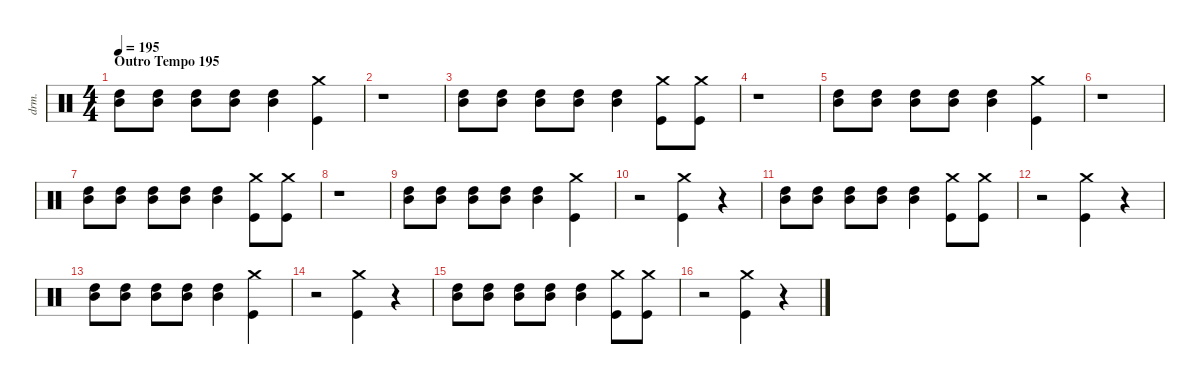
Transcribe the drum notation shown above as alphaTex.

\defaultSystemsLayout 4
\hideDynamics
\bracketExtendMode nobrackets
\otherSystemsTrackNameOrientation horizontal
\track ("Lars Ulrich (Drums)" "drm.") {instrument percussion}
\staff {score}
\articulation defaults
\ts (4 4)
\section ("" "Outro Tempo 195")
\tempo 195
\clef neutral
\ks c
("High Tom (hit)" "Mid Tom (hit)").8{dy f beam Down} ("High Tom (hit)" "Mid Tom (hit)").8{beam Down} ("High Tom (hit)" "Mid Tom (hit)").8{beam Down} ("High Tom (hit)" "Mid Tom (hit)").8{beam Down} ("High Tom (hit)" "Mid Tom (hit)").4{beam Down} ("Crash medium (hit)" "Kick (hit)").4{beam Down} |
r.1{beam Down} |
("High Tom (hit)" "Mid Tom (hit)").8{beam Down} ("High Tom (hit)" "Mid Tom (hit)").8{beam Down} ("High Tom (hit)" "Mid Tom (hit)").8{beam Down} ("High Tom (hit)" "Mid Tom (hit)").8{beam Down} ("High Tom (hit)" "Mid Tom (hit)").4{beam Down} ("Crash medium (hit)" "Kick (hit)").8{beam Down} ("Kick (hit)" "Crash medium (hit)").8{beam Down} |
r.1{beam Down} |
("High Tom (hit)" "Mid Tom (hit)").8{beam Down} ("High Tom (hit)" "Mid Tom (hit)").8{beam Down} ("High Tom (hit)" "Mid Tom (hit)").8{beam Down} ("High Tom (hit)" "Mid Tom (hit)").8{beam Down} ("High Tom (hit)" "Mid Tom (hit)").4{beam Down} ("Crash medium (hit)" "Kick (hit)").4{beam Down} |
r.1{beam Down} |
("High Tom (hit)" "Mid Tom (hit)").8{beam Down} ("High Tom (hit)" "Mid Tom (hit)").8{beam Down} ("High Tom (hit)" "Mid Tom (hit)").8{beam Down} ("High Tom (hit)" "Mid Tom (hit)").8{beam Down} ("High Tom (hit)" "Mid Tom (hit)").4{beam Down} ("Crash medium (hit)" "Kick (hit)").8{beam Down} ("Kick (hit)" "Crash medium (hit)").8{beam Down} |
r.1{beam Down} |
("High Tom (hit)" "Mid Tom (hit)").8{beam Down} ("High Tom (hit)" "Mid Tom (hit)").8{beam Down} ("High Tom (hit)" "Mid Tom (hit)").8{beam Down} ("High Tom (hit)" "Mid Tom (hit)").8{beam Down} ("High Tom (hit)" "Mid Tom (hit)").4{beam Down} ("Crash medium (hit)" "Kick (hit)").4{beam Down} |
r.2{beam Down} ("Kick (hit)" "Crash medium (hit)").4{beam Down} r.4{beam Down} |
("High Tom (hit)" "Mid Tom (hit)").8{beam Down} ("High Tom (hit)" "Mid Tom (hit)").8{beam Down} ("High Tom (hit)" "Mid Tom (hit)").8{beam Down} ("High Tom (hit)" "Mid Tom (hit)").8{beam Down} ("High Tom (hit)" "Mid Tom (hit)").4{beam Down} ("Crash medium (hit)" "Kick (hit)").8{beam Down} ("Kick (hit)" "Crash medium (hit)").8{beam Down} |
r.2{beam Down} ("Kick (hit)" "Crash medium (hit)").4{beam Down} r.4{beam Down} |
("High Tom (hit)" "Mid Tom (hit)").8{beam Down} ("High Tom (hit)" "Mid Tom (hit)").8{beam Down} ("High Tom (hit)" "Mid Tom (hit)").8{beam Down} ("High Tom (hit)" "Mid Tom (hit)").8{beam Down} ("High Tom (hit)" "Mid Tom (hit)").4{beam Down} ("Crash medium (hit)" "Kick (hit)").4{beam Down} |
r.2{beam Down} ("Kick (hit)" "Crash medium (hit)").4{beam Down} r.4{beam Down} |
("High Tom (hit)" "Mid Tom (hit)").8{beam Down} ("High Tom (hit)" "Mid Tom (hit)").8{beam Down} ("High Tom (hit)" "Mid Tom (hit)").8{beam Down} ("High Tom (hit)" "Mid Tom (hit)").8{beam Down} ("High Tom (hit)" "Mid Tom (hit)").4{beam Down} ("Crash medium (hit)" "Kick (hit)").8{beam Down} ("Kick (hit)" "Crash medium (hit)").8{beam Down} |
r.2{beam Down} ("Kick (hit)" "Crash medium (hit)").4{beam Down} r.4{beam Down}
